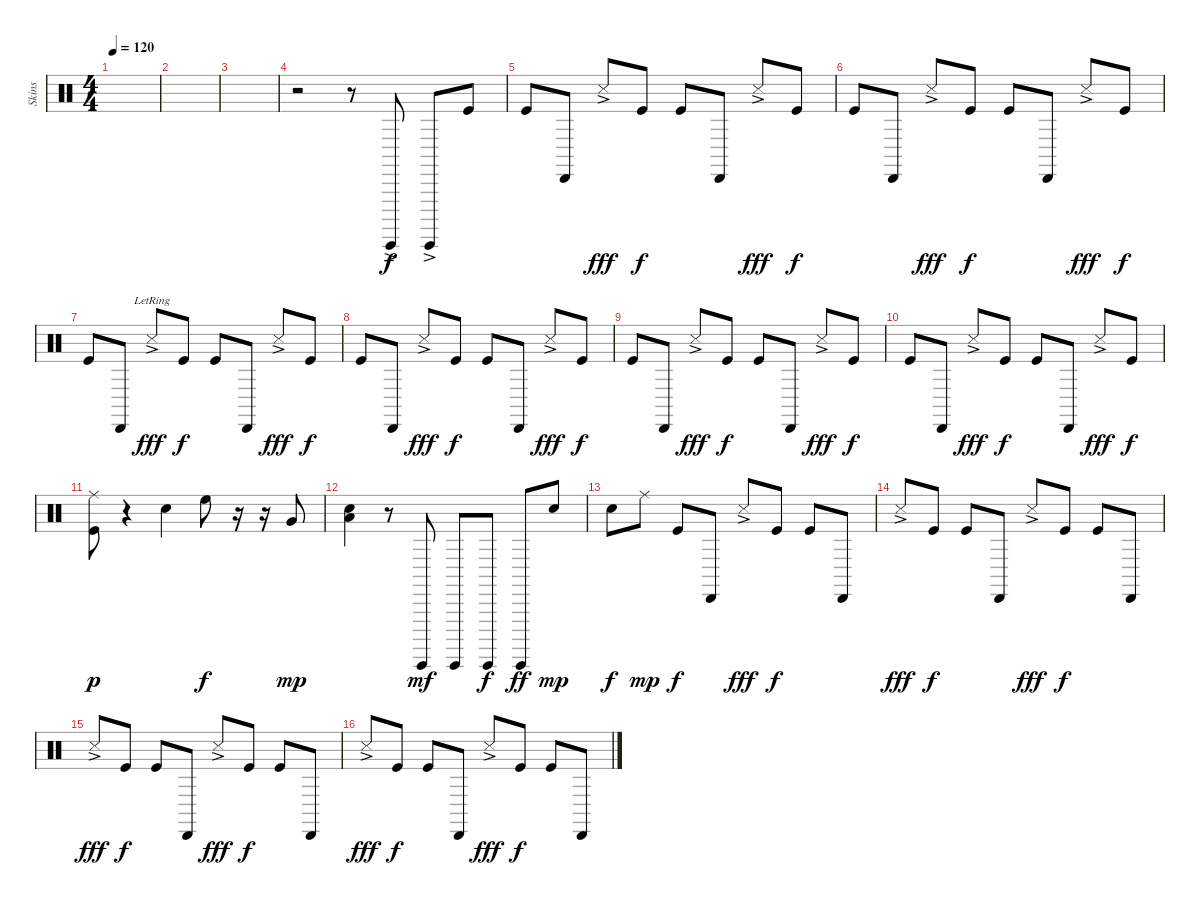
\track ("Skins" "Skins") {instrument percussion}
\staff {score}
\articulation defaults
\ts (4 4)
\tempo 120
\clef neutral
\ks c
|
|
|
r.2 r.8 "Guiro (hit)"{ac}.8 "Guiro (hit)"{ac}.8 "Kick (hit)".8{dy f} |
"Kick (hit)".8 "Cabasa (hit)".8 "Snare (side stick) 3"{ac}.8{dy fff} "Kick (hit)".8{dy f} "Kick (hit)".8 "Cabasa (hit)".8 "Snare (side stick) 3"{ac}.8{dy fff} "Kick (hit)".8{dy f} |
"Kick (hit)".8 "Cabasa (hit)".8 "Snare (side stick) 3"{ac}.8{dy fff} "Kick (hit)".8{dy f} "Kick (hit)".8 "Cabasa (hit)".8 "Snare (side stick) 3"{ac}.8{dy fff} "Kick (hit)".8{dy f} |
"Kick (hit)".8 "Cabasa (hit)".8 "Snare (side stick) 3"{ac lr}.8{dy fff} "Kick (hit)".8{dy f} "Kick (hit)".8 "Cabasa (hit)".8 "Snare (side stick) 3"{ac}.8{dy fff} "Kick (hit)".8{dy f} |
"Kick (hit)".8 "Cabasa (hit)".8 "Snare (side stick) 3"{ac}.8{dy fff} "Kick (hit)".8{dy f} "Kick (hit)".8 "Cabasa (hit)".8 "Snare (side stick) 3"{ac}.8{dy fff} "Kick (hit)".8{dy f} |
"Kick (hit)".8 "Cabasa (hit)".8 "Snare (side stick) 3"{ac}.8{dy fff} "Kick (hit)".8{dy f} "Kick (hit)".8 "Cabasa (hit)".8 "Snare (side stick) 3"{ac}.8{dy fff} "Kick (hit)".8{dy f} |
"Kick (hit)".8 "Cabasa (hit)".8 "Snare (side stick) 3"{ac}.8{dy fff} "Kick (hit)".8{dy f} "Kick (hit)".8 "Cabasa (hit)".8 "Snare (side stick) 3"{ac}.8{dy fff} "Kick (hit)".8{dy f} |
("Ride (middle)" "Kick (hit)").8{dy p} r.4 "Snare (hit) 2".4 "High Floor Tom (hit)".8{dy f} r.16 r.16 "Very Low Tom (hit)".8{dy mp} |
("Electric Snare (hit)" "Low Floor Tom (hit)").4 r.8 "Guiro (hit)".8{dy mf} "Guiro (hit)".8 "Guiro (hit)".8{dy f} "Guiro (hit)".8{dy ff} "Electric Snare (hit)".8{dy mp} |
"Snare (hit) 2".8{dy f} "Ride (middle)".8{dy mp} "Kick (hit)".8{dy f} "Cabasa (hit)".8 "Snare (side stick) 3"{ac}.8{dy fff} "Kick (hit)".8{dy f} "Kick (hit)".8 "Cabasa (hit)".8 |
"Snare (side stick) 3"{ac}.8{dy fff} "Kick (hit)".8{dy f} "Kick (hit)".8 "Cabasa (hit)".8 "Snare (side stick) 3"{ac}.8{dy fff} "Kick (hit)".8{dy f} "Kick (hit)".8 "Cabasa (hit)".8 |
"Snare (side stick) 3"{ac}.8{dy fff} "Kick (hit)".8{dy f} "Kick (hit)".8 "Cabasa (hit)".8 "Snare (side stick) 3"{ac}.8{dy fff} "Kick (hit)".8{dy f} "Kick (hit)".8 "Cabasa (hit)".8 |
"Snare (side stick) 3"{ac}.8{dy fff} "Kick (hit)".8{dy f} "Kick (hit)".8 "Cabasa (hit)".8 "Snare (side stick) 3"{ac}.8{dy fff} "Kick (hit)".8{dy f} "Kick (hit)".8 "Cabasa (hit)".8
